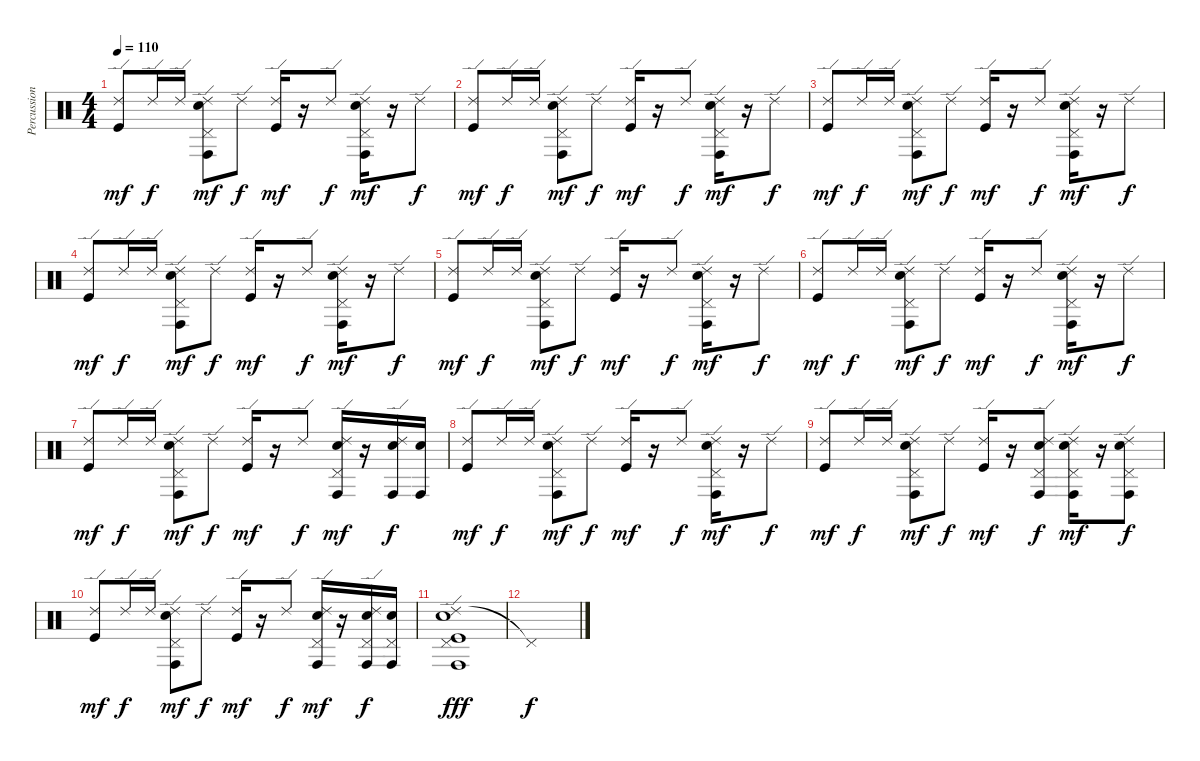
\track ("Percussion" "Percussion") {instrument percussion}
\staff {score}
\articulation defaults
\ts (4 4)
\tempo 110
\clef neutral
\ks c
("Ride (edge) 2" "Kick (hit)").8{dy mf} "Ride (edge) 2".16{dy f} "Ride (edge) 2".16 ("Ride (edge) 2" "Pedal Hi-Hat (hit)" "Conga high (hit)" "Electric Snare (hit)").8{dy mf} "Ride (edge) 2".8{dy f} ("Ride (edge) 2" "Kick (hit)").16{dy mf} r.16 "Ride (edge) 2".8{dy f} ("Ride (edge) 2" "Pedal Hi-Hat (hit)" "Conga high (hit)" "Electric Snare (hit)").16{dy mf} r.16 "Ride (edge) 2".8{dy f} |
("Ride (edge) 2" "Kick (hit)").8{dy mf} "Ride (edge) 2".16{dy f} "Ride (edge) 2".16 ("Ride (edge) 2" "Pedal Hi-Hat (hit)" "Conga high (hit)" "Electric Snare (hit)").8{dy mf} "Ride (edge) 2".8{dy f} ("Ride (edge) 2" "Kick (hit)").16{dy mf} r.16 "Ride (edge) 2".8{dy f} ("Ride (edge) 2" "Pedal Hi-Hat (hit)" "Conga high (hit)" "Electric Snare (hit)").16{dy mf} r.16 "Ride (edge) 2".8{dy f} |
("Ride (edge) 2" "Kick (hit)").8{dy mf} "Ride (edge) 2".16{dy f} "Ride (edge) 2".16 ("Ride (edge) 2" "Pedal Hi-Hat (hit)" "Conga high (hit)" "Electric Snare (hit)").8{dy mf} "Ride (edge) 2".8{dy f} ("Ride (edge) 2" "Kick (hit)").16{dy mf} r.16 "Ride (edge) 2".8{dy f} ("Ride (edge) 2" "Pedal Hi-Hat (hit)" "Conga high (hit)" "Electric Snare (hit)").16{dy mf} r.16 "Ride (edge) 2".8{dy f} |
("Ride (edge) 2" "Kick (hit)").8{dy mf} "Ride (edge) 2".16{dy f} "Ride (edge) 2".16 ("Ride (edge) 2" "Pedal Hi-Hat (hit)" "Conga high (hit)" "Electric Snare (hit)").8{dy mf} "Ride (edge) 2".8{dy f} ("Ride (edge) 2" "Kick (hit)").16{dy mf} r.16 "Ride (edge) 2".8{dy f} ("Ride (edge) 2" "Pedal Hi-Hat (hit)" "Conga high (hit)" "Electric Snare (hit)").16{dy mf} r.16 "Ride (edge) 2".8{dy f} |
("Ride (edge) 2" "Kick (hit)").8{dy mf} "Ride (edge) 2".16{dy f} "Ride (edge) 2".16 ("Ride (edge) 2" "Pedal Hi-Hat (hit)" "Conga high (hit)" "Electric Snare (hit)").8{dy mf} "Ride (edge) 2".8{dy f} ("Ride (edge) 2" "Kick (hit)").16{dy mf} r.16 "Ride (edge) 2".8{dy f} ("Ride (edge) 2" "Pedal Hi-Hat (hit)" "Conga high (hit)" "Electric Snare (hit)").16{dy mf} r.16 "Ride (edge) 2".8{dy f} |
("Ride (edge) 2" "Kick (hit)").8{dy mf} "Ride (edge) 2".16{dy f} "Ride (edge) 2".16 ("Ride (edge) 2" "Pedal Hi-Hat (hit)" "Conga high (hit)" "Electric Snare (hit)").8{dy mf} "Ride (edge) 2".8{dy f} ("Ride (edge) 2" "Kick (hit)").16{dy mf} r.16 "Ride (edge) 2".8{dy f} ("Ride (edge) 2" "Pedal Hi-Hat (hit)" "Conga high (hit)" "Electric Snare (hit)").16{dy mf} r.16 "Ride (edge) 2".8{dy f} |
("Ride (edge) 2" "Kick (hit)").8{dy mf} "Ride (edge) 2".16{dy f} "Ride (edge) 2".16 ("Ride (edge) 2" "Pedal Hi-Hat (hit)" "Conga high (hit)" "Electric Snare (hit)").8{dy mf} "Ride (edge) 2".8{dy f} ("Ride (edge) 2" "Kick (hit)").16{dy mf} r.16 "Ride (edge) 2".8{dy f} ("Ride (edge) 2" "Pedal Hi-Hat (hit)" "Conga high (hit)" "Electric Snare (hit)").16{dy mf} r.16 ("Ride (edge) 2" "Conga high (hit)" "Electric Snare (hit)").16{dy f} ("Conga high (hit)" "Electric Snare (hit)").16 |
("Ride (edge) 2" "Kick (hit)").8{dy mf} "Ride (edge) 2".16{dy f} "Ride (edge) 2".16 ("Ride (edge) 2" "Pedal Hi-Hat (hit)" "Conga high (hit)" "Electric Snare (hit)").8{dy mf} "Ride (edge) 2".8{dy f} ("Ride (edge) 2" "Kick (hit)").16{dy mf} r.16 "Ride (edge) 2".8{dy f} ("Ride (edge) 2" "Pedal Hi-Hat (hit)" "Conga high (hit)" "Electric Snare (hit)").16{dy mf} r.16 "Ride (edge) 2".8{dy f} |
("Ride (edge) 2" "Kick (hit)").8{dy mf} "Ride (edge) 2".16{dy f} "Ride (edge) 2".16 ("Ride (edge) 2" "Pedal Hi-Hat (hit)" "Conga high (hit)" "Electric Snare (hit)").8{dy mf} "Ride (edge) 2".8{dy f} ("Ride (edge) 2" "Kick (hit)").16{dy mf} r.16 ("Ride (edge) 2" "Pedal Hi-Hat (hit)" "Conga high (hit)" "Electric Snare (hit)").8{dy f} ("Ride (edge) 2" "Pedal Hi-Hat (hit)" "Conga high (hit)" "Electric Snare (hit)").16{dy mf} r.16 ("Ride (edge) 2" "Pedal Hi-Hat (hit)" "Conga high (hit)" "Electric Snare (hit)").8{dy f} |
("Ride (edge) 2" "Kick (hit)").8{dy mf} "Ride (edge) 2".16{dy f} "Ride (edge) 2".16 ("Ride (edge) 2" "Pedal Hi-Hat (hit)" "Conga high (hit)" "Electric Snare (hit)").8{dy mf} "Ride (edge) 2".8{dy f} ("Ride (edge) 2" "Kick (hit)").16{dy mf} r.16 "Ride (edge) 2".8{dy f} ("Ride (edge) 2" "Pedal Hi-Hat (hit)" "Conga high (hit)" "Electric Snare (hit)").16{dy mf} r.16 ("Ride (edge) 2" "Pedal Hi-Hat (hit)" "Conga high (hit)" "Electric Snare (hit)").16{dy f} ("Pedal Hi-Hat (hit)" "Conga high (hit)" "Electric Snare (hit)").16 |
("Ride (edge) 2" "Pedal Hi-Hat (hit)" "Conga high (hit)" "Electric Snare (hit)" "Kick (hit)").1{dy fff} |
"Pedal Hi-Hat (hit)"{t}.1{dy f}
